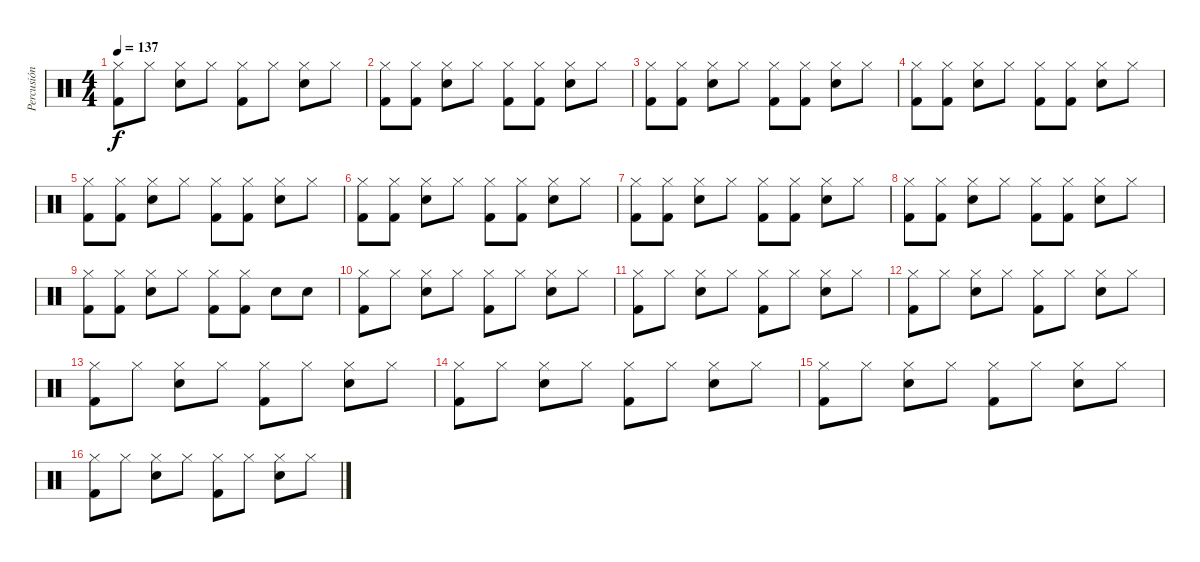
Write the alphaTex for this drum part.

\track ("Percusión" "Percusión") {instrument percussion}
\staff {score}
\articulation defaults
\ts (4 4)
\tempo 137
\clef neutral
\ks c
("Hi-Hat (closed)" "Kick (hit) 2").8{dy f} "Hi-Hat (closed)".8 ("Hi-Hat (closed)" "Electric Snare (hit)").8 "Hi-Hat (closed)".8 ("Hi-Hat (closed)" "Kick (hit) 2").8 "Hi-Hat (closed)".8 ("Hi-Hat (closed)" "Electric Snare (hit)").8 "Hi-Hat (closed)".8 |
("Hi-Hat (closed)" "Kick (hit) 2").8 ("Hi-Hat (closed)" "Kick (hit) 2").8 ("Hi-Hat (closed)" "Electric Snare (hit)").8 "Hi-Hat (closed)".8 ("Hi-Hat (closed)" "Kick (hit) 2").8 ("Hi-Hat (closed)" "Kick (hit) 2").8 ("Hi-Hat (closed)" "Electric Snare (hit)").8 "Hi-Hat (closed)".8 |
("Hi-Hat (closed)" "Kick (hit) 2").8 ("Hi-Hat (closed)" "Kick (hit) 2").8 ("Hi-Hat (closed)" "Electric Snare (hit)").8 "Hi-Hat (closed)".8 ("Hi-Hat (closed)" "Kick (hit) 2").8 ("Hi-Hat (closed)" "Kick (hit) 2").8 ("Hi-Hat (closed)" "Electric Snare (hit)").8 "Hi-Hat (closed)".8 |
("Hi-Hat (closed)" "Kick (hit) 2").8 ("Hi-Hat (closed)" "Kick (hit) 2").8 ("Hi-Hat (closed)" "Electric Snare (hit)").8 "Hi-Hat (closed)".8 ("Hi-Hat (closed)" "Kick (hit) 2").8 ("Hi-Hat (closed)" "Kick (hit) 2").8 ("Hi-Hat (closed)" "Electric Snare (hit)").8 "Hi-Hat (closed)".8 |
("Hi-Hat (closed)" "Kick (hit) 2").8 ("Hi-Hat (closed)" "Kick (hit) 2").8 ("Hi-Hat (closed)" "Electric Snare (hit)").8 "Hi-Hat (closed)".8 ("Hi-Hat (closed)" "Kick (hit) 2").8 ("Hi-Hat (closed)" "Kick (hit) 2").8 ("Hi-Hat (closed)" "Electric Snare (hit)").8 "Hi-Hat (closed)".8 |
("Hi-Hat (closed)" "Kick (hit) 2").8 ("Hi-Hat (closed)" "Kick (hit) 2").8 ("Hi-Hat (closed)" "Electric Snare (hit)").8 "Hi-Hat (closed)".8 ("Hi-Hat (closed)" "Kick (hit) 2").8 ("Hi-Hat (closed)" "Kick (hit) 2").8 ("Hi-Hat (closed)" "Electric Snare (hit)").8 "Hi-Hat (closed)".8 |
("Hi-Hat (closed)" "Kick (hit) 2").8 ("Hi-Hat (closed)" "Kick (hit) 2").8 ("Hi-Hat (closed)" "Electric Snare (hit)").8 "Hi-Hat (closed)".8 ("Hi-Hat (closed)" "Kick (hit) 2").8 ("Hi-Hat (closed)" "Kick (hit) 2").8 ("Hi-Hat (closed)" "Electric Snare (hit)").8 "Hi-Hat (closed)".8 |
("Hi-Hat (closed)" "Kick (hit) 2").8 ("Hi-Hat (closed)" "Kick (hit) 2").8 ("Hi-Hat (closed)" "Electric Snare (hit)").8 "Hi-Hat (closed)".8 ("Hi-Hat (closed)" "Kick (hit) 2").8 ("Hi-Hat (closed)" "Kick (hit) 2").8 ("Hi-Hat (closed)" "Electric Snare (hit)").8 "Hi-Hat (closed)".8 |
("Hi-Hat (closed)" "Kick (hit) 2").8 ("Hi-Hat (closed)" "Kick (hit) 2").8 ("Hi-Hat (closed)" "Electric Snare (hit)").8 "Hi-Hat (closed)".8 ("Hi-Hat (closed)" "Kick (hit) 2").8 ("Hi-Hat (closed)" "Kick (hit) 2").8 "Electric Snare (hit)".8 "Electric Snare (hit)".8 |
("Hi-Hat (closed)" "Kick (hit) 2").8 "Hi-Hat (closed)".8 ("Hi-Hat (closed)" "Electric Snare (hit)").8 "Hi-Hat (closed)".8 ("Hi-Hat (closed)" "Kick (hit) 2").8 "Hi-Hat (closed)".8 ("Hi-Hat (closed)" "Electric Snare (hit)").8 "Hi-Hat (closed)".8 |
("Hi-Hat (closed)" "Kick (hit) 2").8 "Hi-Hat (closed)".8 ("Hi-Hat (closed)" "Electric Snare (hit)").8 "Hi-Hat (closed)".8 ("Hi-Hat (closed)" "Kick (hit) 2").8 "Hi-Hat (closed)".8 ("Hi-Hat (closed)" "Electric Snare (hit)").8 "Hi-Hat (closed)".8 |
("Hi-Hat (closed)" "Kick (hit) 2").8 "Hi-Hat (closed)".8 ("Hi-Hat (closed)" "Electric Snare (hit)").8 "Hi-Hat (closed)".8 ("Hi-Hat (closed)" "Kick (hit) 2").8 "Hi-Hat (closed)".8 ("Hi-Hat (closed)" "Electric Snare (hit)").8 "Hi-Hat (closed)".8 |
("Hi-Hat (closed)" "Kick (hit) 2").8 "Hi-Hat (closed)".8 ("Hi-Hat (closed)" "Electric Snare (hit)").8 "Hi-Hat (closed)".8 ("Hi-Hat (closed)" "Kick (hit) 2").8 "Hi-Hat (closed)".8 ("Hi-Hat (closed)" "Electric Snare (hit)").8 "Hi-Hat (closed)".8 |
("Hi-Hat (closed)" "Kick (hit) 2").8 "Hi-Hat (closed)".8 ("Hi-Hat (closed)" "Electric Snare (hit)").8 "Hi-Hat (closed)".8 ("Hi-Hat (closed)" "Kick (hit) 2").8 "Hi-Hat (closed)".8 ("Hi-Hat (closed)" "Electric Snare (hit)").8 "Hi-Hat (closed)".8 |
("Hi-Hat (closed)" "Kick (hit) 2").8 "Hi-Hat (closed)".8 ("Hi-Hat (closed)" "Electric Snare (hit)").8 "Hi-Hat (closed)".8 ("Hi-Hat (closed)" "Kick (hit) 2").8 "Hi-Hat (closed)".8 ("Hi-Hat (closed)" "Electric Snare (hit)").8 "Hi-Hat (closed)".8 |
("Hi-Hat (closed)" "Kick (hit) 2").8 "Hi-Hat (closed)".8 ("Hi-Hat (closed)" "Electric Snare (hit)").8 "Hi-Hat (closed)".8 ("Hi-Hat (closed)" "Kick (hit) 2").8 "Hi-Hat (closed)".8 ("Hi-Hat (closed)" "Electric Snare (hit)").8 "Hi-Hat (closed)".8
